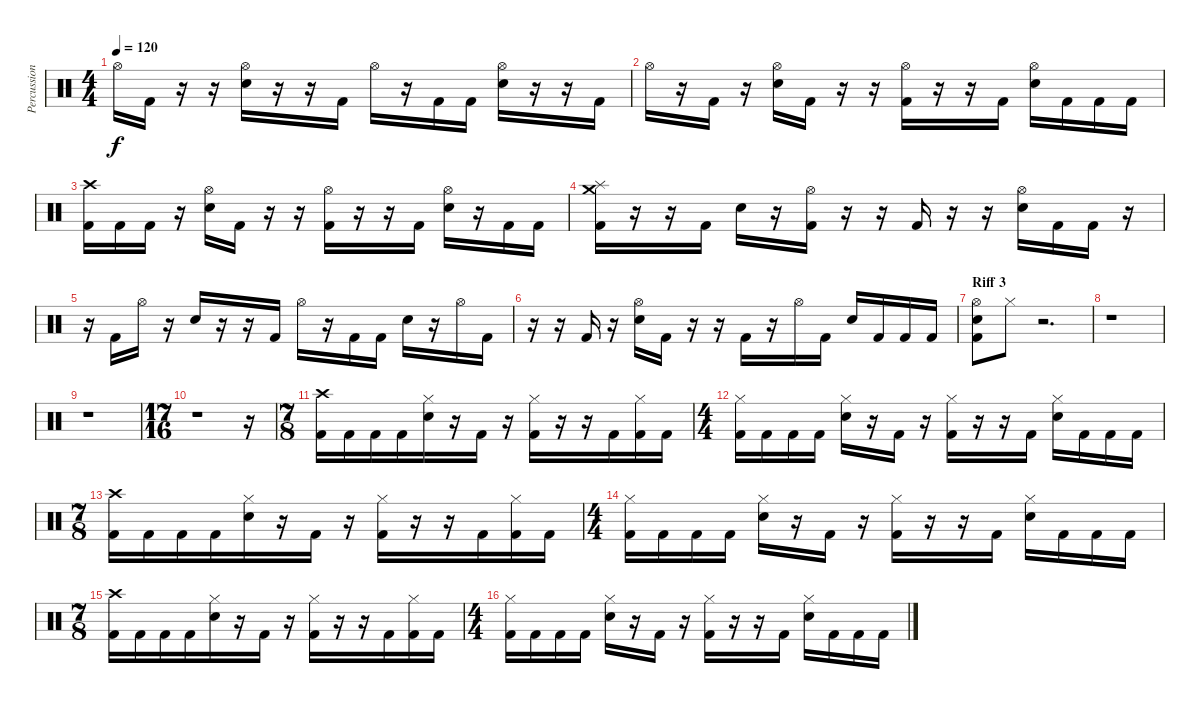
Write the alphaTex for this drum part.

\track ("Percussion" "Percussion") {instrument percussion}
\staff {score}
\articulation defaults
\ts (4 4)
\tempo 120
\clef neutral
\ks c "Hi-Hat (open)".16{dy f} "Kick (hit) 2".16
r.16 r.16 ("Hi-Hat (open)" "Electric Snare (hit)").16 r.16 r.16 "Kick (hit) 2".16 "Hi-Hat (open)".16 r.16 "Kick (hit) 2".16 "Kick (hit) 2".16 ("Hi-Hat (open)" "Electric Snare (hit)").16 r.16 r.16 "Kick (hit) 2".16 |
"Hi-Hat (open)".16 r.16 "Kick (hit) 2".16 r.16 ("Hi-Hat (open)" "Electric Snare (hit)").16 "Kick (hit) 2".16 r.16 r.16 ("Hi-Hat (open)" "Kick (hit) 2").16 r.16 r.16 "Kick (hit) 2".16 ("Hi-Hat (open)" "Electric Snare (hit)").16 "Kick (hit) 2".16 "Kick (hit) 2".16 "Kick (hit) 2".16 |
("Crash high (hit)" "Kick (hit) 2").16 "Kick (hit) 2".16 "Kick (hit) 2".16 r.16 ("Hi-Hat (open)" "Electric Snare (hit)").16 "Kick (hit) 2".16 r.16 r.16 ("Hi-Hat (open)" "Kick (hit) 2").16 r.16 r.16 "Kick (hit) 2".16 ("Hi-Hat (open)" "Electric Snare (hit)").16 r.16 "Kick (hit) 2".16 "Kick (hit) 2".16 |
("Splash (hit)" "Crash medium (hit)" "Kick (hit) 2").16 r.16 r.16 "Kick (hit) 2".16 "Electric Snare (hit)".16 r.16 ("Hi-Hat (open)" "Kick (hit) 2").16 r.16 r.16 "Kick (hit) 2".16 r.16 r.16 ("Hi-Hat (open)" "Electric Snare (hit)").16 "Kick (hit) 2".16 "Kick (hit) 2".16 r.16 |
r.16 "Kick (hit) 2".16 "Hi-Hat (open)".16 r.16 "Electric Snare (hit)".16 r.16 r.16 "Kick (hit) 2".16 "Hi-Hat (open)".16 r.16 "Kick (hit) 2".16 "Kick (hit) 2".16 "Electric Snare (hit)".16 r.16 "Hi-Hat (open)".16 "Kick (hit) 2".16 |
r.16 r.16 "Kick (hit) 2".16 r.16 ("Hi-Hat (open)" "Electric Snare (hit)").16 "Kick (hit) 2".16 r.16 r.16 "Kick (hit) 2".16 r.16 "Hi-Hat (open)".16 "Kick (hit) 2".16 "Electric Snare (hit)".16 "Kick (hit) 2".16 "Kick (hit) 2".16 "Kick (hit) 2".16 |
\section ("" "Riff 3")
("Hi-Hat (open)" "Electric Snare (hit)" "Kick (hit) 2").8 "Hi-Hat (closed)".8 r.2{d} |
r.1 |
r.1 |
\ts (17 16)
r.1 r.16 |
\ts (7 8)
("Crash high (hit)" "Kick (hit) 2").16 "Kick (hit) 2".16 "Kick (hit) 2".16 "Kick (hit) 2".16 ("Hi-Hat (closed)" "Electric Snare (hit)").16 r.16 "Kick (hit) 2".16 r.16 ("Hi-Hat (closed)" "Kick (hit) 2").16 r.16 r.16 "Kick (hit) 2".16 ("Hi-Hat (closed)" "Kick (hit) 2").16 "Kick (hit) 2".16 |
\ts (4 4)
("Hi-Hat (closed)" "Kick (hit) 2").16 "Kick (hit) 2".16 "Kick (hit) 2".16 "Kick (hit) 2".16 ("Hi-Hat (closed)" "Electric Snare (hit)").16 r.16 "Kick (hit) 2".16 r.16 ("Hi-Hat (closed)" "Kick (hit) 2").16 r.16 r.16 "Kick (hit) 2".16 ("Hi-Hat (closed)" "Electric Snare (hit)").16 "Kick (hit) 2".16 "Kick (hit) 2".16 "Kick (hit) 2".16 |
\ts (7 8)
("Crash high (hit)" "Kick (hit) 2").16 "Kick (hit) 2".16 "Kick (hit) 2".16 "Kick (hit) 2".16 ("Hi-Hat (closed)" "Electric Snare (hit)").16 r.16 "Kick (hit) 2".16 r.16 ("Hi-Hat (closed)" "Kick (hit) 2").16 r.16 r.16 "Kick (hit) 2".16 ("Hi-Hat (closed)" "Kick (hit) 2").16 "Kick (hit) 2".16 |
\ts (4 4)
("Hi-Hat (closed)" "Kick (hit) 2").16 "Kick (hit) 2".16 "Kick (hit) 2".16 "Kick (hit) 2".16 ("Hi-Hat (closed)" "Electric Snare (hit)").16 r.16 "Kick (hit) 2".16 r.16 ("Hi-Hat (closed)" "Kick (hit) 2").16 r.16 r.16 "Kick (hit) 2".16 ("Hi-Hat (closed)" "Electric Snare (hit)").16 "Kick (hit) 2".16 "Kick (hit) 2".16 "Kick (hit) 2".16 |
\ts (7 8)
("Crash high (hit)" "Kick (hit) 2").16 "Kick (hit) 2".16 "Kick (hit) 2".16 "Kick (hit) 2".16 ("Hi-Hat (closed)" "Electric Snare (hit)").16 r.16 "Kick (hit) 2".16 r.16 ("Hi-Hat (closed)" "Kick (hit) 2").16 r.16 r.16 "Kick (hit) 2".16 ("Hi-Hat (closed)" "Kick (hit) 2").16 "Kick (hit) 2".16 |
\ts (4 4)
("Hi-Hat (closed)" "Kick (hit) 2").16 "Kick (hit) 2".16 "Kick (hit) 2".16 "Kick (hit) 2".16 ("Hi-Hat (closed)" "Electric Snare (hit)").16 r.16 "Kick (hit) 2".16 r.16 ("Hi-Hat (closed)" "Kick (hit) 2").16 r.16 r.16 "Kick (hit) 2".16 ("Hi-Hat (closed)" "Electric Snare (hit)").16 "Kick (hit) 2".16 "Kick (hit) 2".16 "Kick (hit) 2".16
